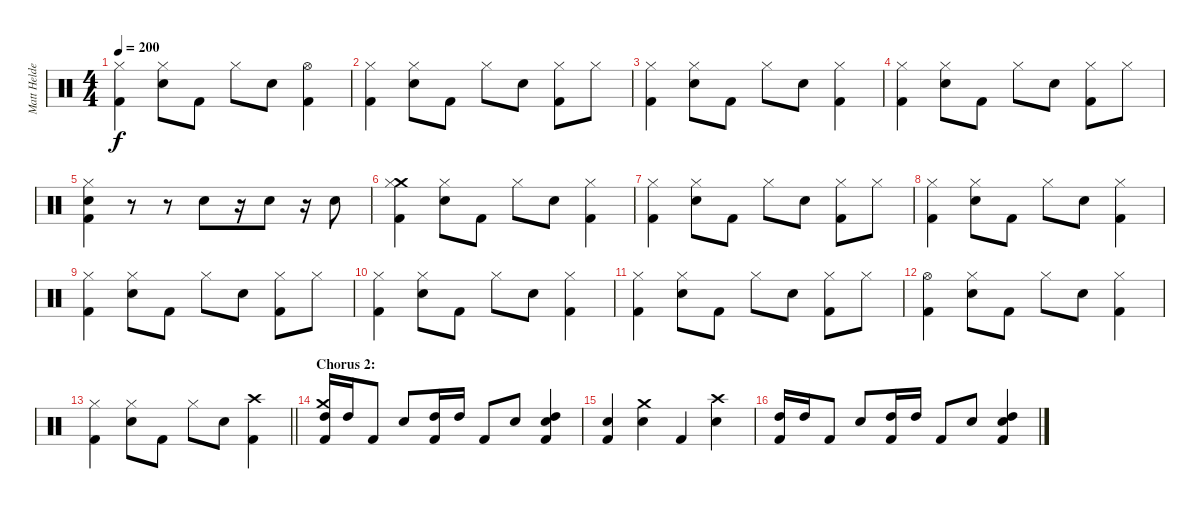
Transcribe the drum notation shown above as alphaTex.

\track ("Matt Helders (Drums/Percussion)" "Matt Helde") {instrument percussion}
\staff {score}
\articulation defaults
\ts (4 4)
\tempo 200
\clef neutral
\ks c
("Hi-Hat (closed)" "Kick (hit) 2").4{dy f} ("Hi-Hat (closed)" "Snare (hit) 2").8 "Kick (hit) 2".8 "Hi-Hat (closed)".8 "Snare (hit) 2".8 ("Hi-Hat (open)" "Kick (hit) 2").4 |
("Hi-Hat (closed)" "Kick (hit) 2").4 ("Hi-Hat (closed)" "Snare (hit) 2").8 "Kick (hit) 2".8 "Hi-Hat (closed)".8 "Snare (hit) 2".8 ("Hi-Hat (closed)" "Kick (hit) 2").8 "Hi-Hat (closed)".8 |
("Hi-Hat (closed)" "Kick (hit) 2").4 ("Hi-Hat (closed)" "Snare (hit) 2").8 "Kick (hit) 2".8 "Hi-Hat (closed)".8 "Snare (hit) 2".8 ("Hi-Hat (closed)" "Kick (hit) 2").4 |
("Hi-Hat (closed)" "Kick (hit) 2").4 ("Hi-Hat (closed)" "Snare (hit) 2").8 "Kick (hit) 2".8 "Hi-Hat (closed)".8 "Snare (hit) 2".8 ("Hi-Hat (closed)" "Kick (hit) 2").8 "Hi-Hat (closed)".8 |
("Hi-Hat (closed)" "Snare (hit) 2" "Kick (hit) 2").4 r.8 r.8 "Snare (hit) 2".8 r.16 "Snare (hit) 2".8 r.16 "Snare (hit) 2".8 |
("Crash medium (hit)" "Hi-Hat (closed)" "Kick (hit) 2").4 ("Hi-Hat (closed)" "Snare (hit) 2").8 "Kick (hit) 2".8 "Hi-Hat (closed)".8 "Snare (hit) 2".8 ("Hi-Hat (closed)" "Kick (hit) 2").4 |
("Hi-Hat (closed)" "Kick (hit) 2").4 ("Hi-Hat (closed)" "Snare (hit) 2").8 "Kick (hit) 2".8 "Hi-Hat (closed)".8 "Snare (hit) 2".8 ("Hi-Hat (closed)" "Kick (hit) 2").8 "Hi-Hat (closed)".8 |
("Hi-Hat (closed)" "Kick (hit) 2").4 ("Hi-Hat (closed)" "Snare (hit) 2").8 "Kick (hit) 2".8 "Hi-Hat (closed)".8 "Snare (hit) 2".8 ("Hi-Hat (closed)" "Kick (hit) 2").4 |
("Hi-Hat (closed)" "Kick (hit) 2").4 ("Hi-Hat (closed)" "Snare (hit) 2").8 "Kick (hit) 2".8 "Hi-Hat (closed)".8 "Snare (hit) 2".8 ("Hi-Hat (closed)" "Kick (hit) 2").8 "Hi-Hat (closed)".8 |
("Hi-Hat (closed)" "Kick (hit) 2").4 ("Hi-Hat (closed)" "Snare (hit) 2").8 "Kick (hit) 2".8 "Hi-Hat (closed)".8 "Snare (hit) 2".8 ("Hi-Hat (closed)" "Kick (hit) 2").4 |
("Hi-Hat (closed)" "Kick (hit) 2").4 ("Hi-Hat (closed)" "Snare (hit) 2").8 "Kick (hit) 2".8 "Hi-Hat (closed)".8 "Snare (hit) 2".8 ("Hi-Hat (closed)" "Kick (hit) 2").8 "Hi-Hat (closed)".8 |
("Hi-Hat (open)" "Kick (hit) 2").4 ("Hi-Hat (closed)" "Snare (hit) 2").8 "Kick (hit) 2".8 "Hi-Hat (closed)".8 "Snare (hit) 2".8 ("Hi-Hat (closed)" "Kick (hit) 2").4 |
\barLineRight lightlight
("Hi-Hat (closed)" "Kick (hit) 2").4 ("Hi-Hat (closed)" "Snare (hit) 2").8 "Kick (hit) 2".8 "Hi-Hat (closed)".8 "Snare (hit) 2".8 ("Crash high (hit)" "Kick (hit) 2").4 |
\section ("" "Chorus 2:")
("Crash medium (hit)" "High Tom (hit)" "Kick (hit) 2").16 "High Tom (hit)".16 "Kick (hit) 2".8 "Snare (hit) 2".8 ("High Tom (hit)" "Kick (hit) 2").16 "High Tom (hit)".16 "Kick (hit) 2".8 "Snare (hit) 2".8 ("High Tom (hit)" "Snare (hit) 2" "Kick (hit) 2").4 |
("Snare (hit) 2" "Kick (hit) 2").4 ("Crash medium (hit)" "Snare (hit) 2").4 "Kick (hit) 2".4 ("Crash high (hit)" "Snare (hit) 2").4 |
("High Tom (hit)" "Kick (hit) 2").16 "High Tom (hit)".16 "Kick (hit) 2".8 "Snare (hit) 2".8 ("High Tom (hit)" "Kick (hit) 2").16 "High Tom (hit)".16 "Kick (hit) 2".8 "Snare (hit) 2".8 ("High Tom (hit)" "Snare (hit) 2" "Kick (hit) 2").4
